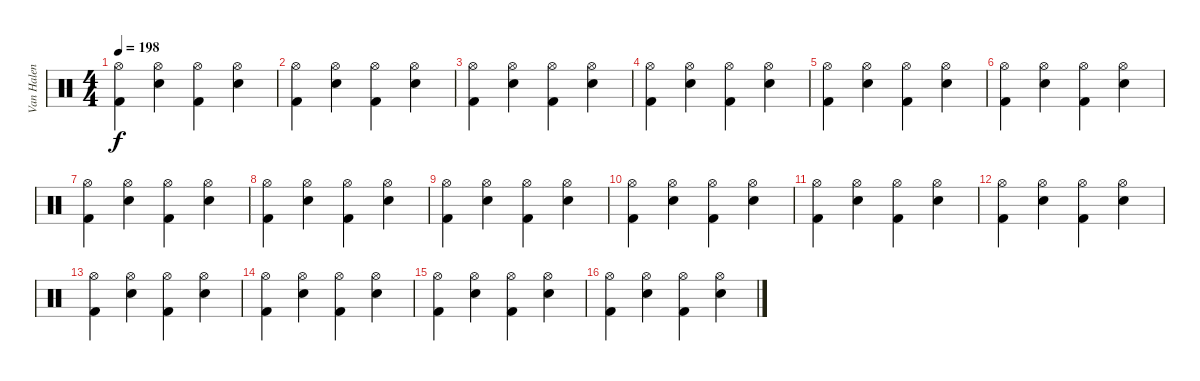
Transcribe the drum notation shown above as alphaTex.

\track ("Van Halen" "Van Halen") {instrument percussion}
\staff {score}
\articulation defaults
\ts (4 4)
\tempo 198
\clef neutral
\ks c
("Kick (hit) 2" "Hi-Hat (open)").4{dy f} ("Snare (hit) 2" "Hi-Hat (open)").4 ("Kick (hit) 2" "Hi-Hat (open)").4 ("Snare (hit) 2" "Hi-Hat (open)").4 |
("Kick (hit) 2" "Hi-Hat (open)").4 ("Snare (hit) 2" "Hi-Hat (open)").4 ("Kick (hit) 2" "Hi-Hat (open)").4 ("Snare (hit) 2" "Hi-Hat (open)").4 |
("Kick (hit) 2" "Hi-Hat (open)").4 ("Snare (hit) 2" "Hi-Hat (open)").4 ("Kick (hit) 2" "Hi-Hat (open)").4 ("Snare (hit) 2" "Hi-Hat (open)").4 |
("Kick (hit) 2" "Hi-Hat (open)").4 ("Snare (hit) 2" "Hi-Hat (open)").4 ("Kick (hit) 2" "Hi-Hat (open)").4 ("Snare (hit) 2" "Hi-Hat (open)").4 |
("Kick (hit) 2" "Hi-Hat (open)").4 ("Snare (hit) 2" "Hi-Hat (open)").4 ("Kick (hit) 2" "Hi-Hat (open)").4 ("Snare (hit) 2" "Hi-Hat (open)").4 |
("Kick (hit) 2" "Hi-Hat (open)").4 ("Snare (hit) 2" "Hi-Hat (open)").4 ("Kick (hit) 2" "Hi-Hat (open)").4 ("Snare (hit) 2" "Hi-Hat (open)").4 |
("Kick (hit) 2" "Hi-Hat (open)").4 ("Snare (hit) 2" "Hi-Hat (open)").4 ("Kick (hit) 2" "Hi-Hat (open)").4 ("Snare (hit) 2" "Hi-Hat (open)").4 |
("Kick (hit) 2" "Hi-Hat (open)").4 ("Snare (hit) 2" "Hi-Hat (open)").4 ("Kick (hit) 2" "Hi-Hat (open)").4 ("Snare (hit) 2" "Hi-Hat (open)").4 |
("Kick (hit) 2" "Hi-Hat (open)").4 ("Snare (hit) 2" "Hi-Hat (open)").4 ("Kick (hit) 2" "Hi-Hat (open)").4 ("Snare (hit) 2" "Hi-Hat (open)").4 |
("Kick (hit) 2" "Hi-Hat (open)").4 ("Snare (hit) 2" "Hi-Hat (open)").4 ("Kick (hit) 2" "Hi-Hat (open)").4 ("Snare (hit) 2" "Hi-Hat (open)").4 |
("Kick (hit) 2" "Hi-Hat (open)").4 ("Snare (hit) 2" "Hi-Hat (open)").4 ("Kick (hit) 2" "Hi-Hat (open)").4 ("Snare (hit) 2" "Hi-Hat (open)").4 |
("Kick (hit) 2" "Hi-Hat (open)").4 ("Snare (hit) 2" "Hi-Hat (open)").4 ("Kick (hit) 2" "Hi-Hat (open)").4 ("Snare (hit) 2" "Hi-Hat (open)").4 |
("Kick (hit) 2" "Hi-Hat (open)").4 ("Snare (hit) 2" "Hi-Hat (open)").4 ("Kick (hit) 2" "Hi-Hat (open)").4 ("Snare (hit) 2" "Hi-Hat (open)").4 |
("Kick (hit) 2" "Hi-Hat (open)").4 ("Snare (hit) 2" "Hi-Hat (open)").4 ("Kick (hit) 2" "Hi-Hat (open)").4 ("Snare (hit) 2" "Hi-Hat (open)").4 |
("Kick (hit) 2" "Hi-Hat (open)").4 ("Snare (hit) 2" "Hi-Hat (open)").4 ("Kick (hit) 2" "Hi-Hat (open)").4 ("Snare (hit) 2" "Hi-Hat (open)").4 |
("Kick (hit) 2" "Hi-Hat (open)").4 ("Snare (hit) 2" "Hi-Hat (open)").4 ("Kick (hit) 2" "Hi-Hat (open)").4 ("Snare (hit) 2" "Hi-Hat (open)").4
